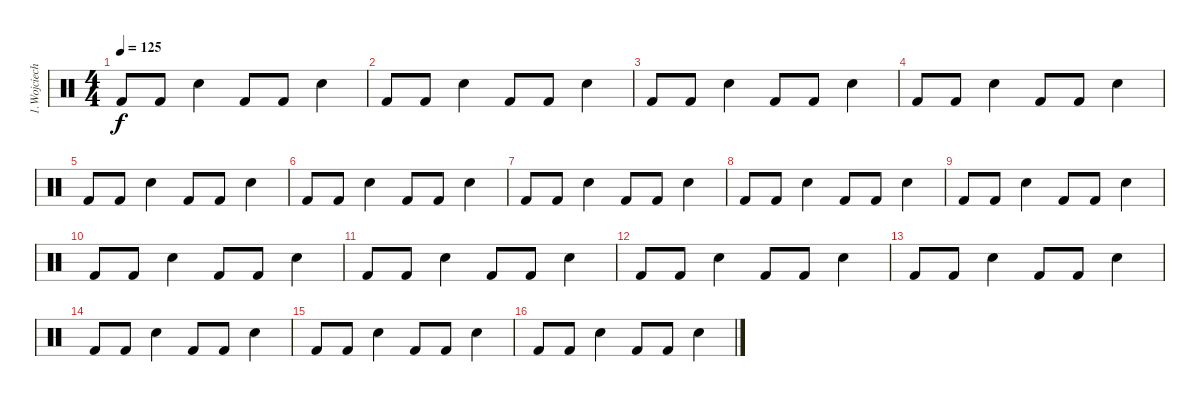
\track ("1.Wojciech Kuderski (\"Lala\")" "1.Wojciech") {instrument percussion}
\staff {score}
\articulation defaults
\ts (4 4)
\tempo 125
\clef neutral
\ks c "Kick (hit) 2".8{dy f} "Kick (hit) 2".8 "Electric Snare (hit)".4 "Kick (hit) 2".8 "Kick (hit) 2".8 "Electric Snare (hit)".4
|
"Kick (hit) 2".8 "Kick (hit) 2".8 "Electric Snare (hit)".4 "Kick (hit) 2".8 "Kick (hit) 2".8 "Electric Snare (hit)".4 |
"Kick (hit) 2".8 "Kick (hit) 2".8 "Electric Snare (hit)".4 "Kick (hit) 2".8 "Kick (hit) 2".8 "Electric Snare (hit)".4 |
"Kick (hit) 2".8 "Kick (hit) 2".8 "Electric Snare (hit)".4 "Kick (hit) 2".8 "Kick (hit) 2".8 "Electric Snare (hit)".4 |
"Kick (hit) 2".8 "Kick (hit) 2".8 "Electric Snare (hit)".4 "Kick (hit) 2".8 "Kick (hit) 2".8 "Electric Snare (hit)".4 |
"Kick (hit) 2".8 "Kick (hit) 2".8 "Electric Snare (hit)".4 "Kick (hit) 2".8 "Kick (hit) 2".8 "Electric Snare (hit)".4 |
"Kick (hit) 2".8 "Kick (hit) 2".8 "Electric Snare (hit)".4 "Kick (hit) 2".8 "Kick (hit) 2".8 "Electric Snare (hit)".4 |
"Kick (hit) 2".8 "Kick (hit) 2".8 "Electric Snare (hit)".4 "Kick (hit) 2".8 "Kick (hit) 2".8 "Electric Snare (hit)".4 |
"Kick (hit) 2".8 "Kick (hit) 2".8 "Electric Snare (hit)".4 "Kick (hit) 2".8 "Kick (hit) 2".8 "Electric Snare (hit)".4 |
"Kick (hit) 2".8 "Kick (hit) 2".8 "Electric Snare (hit)".4 "Kick (hit) 2".8 "Kick (hit) 2".8 "Electric Snare (hit)".4 |
"Kick (hit) 2".8 "Kick (hit) 2".8 "Electric Snare (hit)".4 "Kick (hit) 2".8 "Kick (hit) 2".8 "Electric Snare (hit)".4 |
"Kick (hit) 2".8 "Kick (hit) 2".8 "Electric Snare (hit)".4 "Kick (hit) 2".8 "Kick (hit) 2".8 "Electric Snare (hit)".4 |
"Kick (hit) 2".8 "Kick (hit) 2".8 "Electric Snare (hit)".4 "Kick (hit) 2".8 "Kick (hit) 2".8 "Electric Snare (hit)".4 |
"Kick (hit) 2".8 "Kick (hit) 2".8 "Electric Snare (hit)".4 "Kick (hit) 2".8 "Kick (hit) 2".8 "Electric Snare (hit)".4 |
"Kick (hit) 2".8 "Kick (hit) 2".8 "Electric Snare (hit)".4 "Kick (hit) 2".8 "Kick (hit) 2".8 "Electric Snare (hit)".4 |
"Kick (hit) 2".8 "Kick (hit) 2".8 "Electric Snare (hit)".4 "Kick (hit) 2".8 "Kick (hit) 2".8 "Electric Snare (hit)".4
